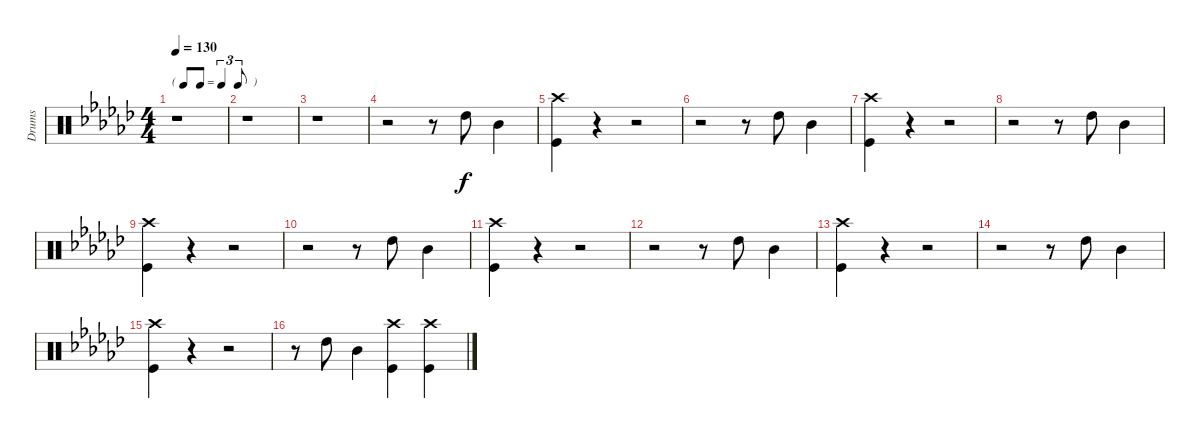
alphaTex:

\track ("Drums" "Drums") {instrument percussion}
\staff {score}
\articulation defaults
\ts (4 4)
\tf triplet8th
\tempo 130
\clef neutral
\ks gb
r.1{dy f} |
r.1 |
r.1 |
r.2 r.8 "High Tom (hit)".8{volume 11} "Mid Tom (hit)".4 |
("Crash high (hit)" "Kick (hit)").4 r.4 r.2 |
r.2 r.8 "High Tom (hit)".8 "Mid Tom (hit)".4 |
("Crash high (hit)" "Kick (hit)").4 r.4 r.2 |
r.2 r.8 "High Tom (hit)".8 "Mid Tom (hit)".4 |
("Crash high (hit)" "Kick (hit)").4 r.4 r.2 |
r.2 r.8 "High Tom (hit)".8 "Mid Tom (hit)".4 |
("Crash high (hit)" "Kick (hit)").4 r.4 r.2 |
r.2 r.8 "High Tom (hit)".8 "Mid Tom (hit)".4 |
("Crash high (hit)" "Kick (hit)").4 r.4 r.2 |
r.2 r.8 "High Tom (hit)".8 "Mid Tom (hit)".4 |
("Crash high (hit)" "Kick (hit)").4 r.4 r.2 |
r.8 "High Tom (hit)".8 "Mid Tom (hit)".4 ("Crash high (hit)" "Kick (hit)").4 ("Crash high (hit)" "Kick (hit)").4
